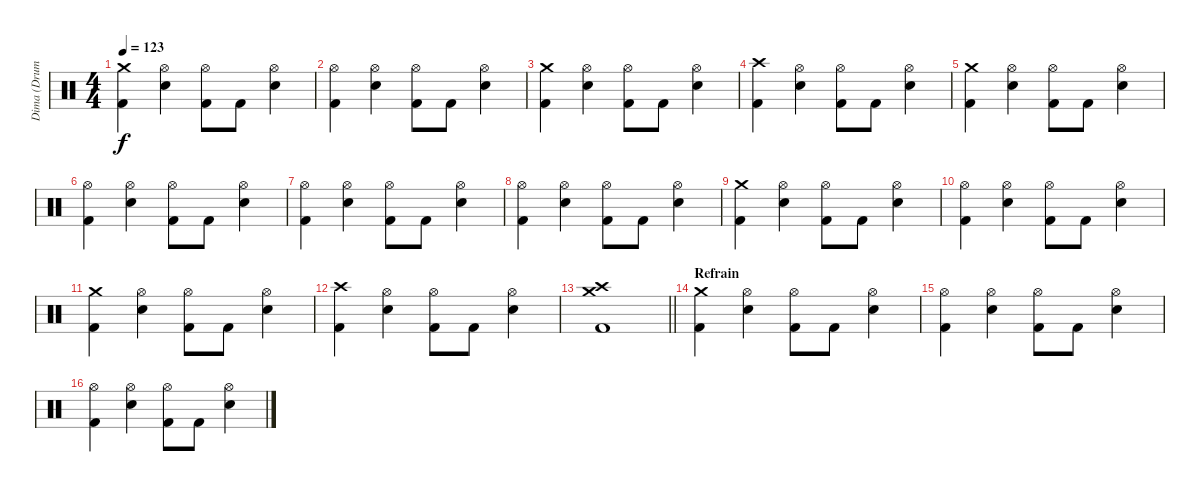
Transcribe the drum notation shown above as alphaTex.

\track ("Dima (Drums)" "Dima (Drum") {instrument percussion}
\staff {score}
\articulation defaults
\ts (4 4)
\tempo 123
\clef neutral
\ks c
("Crash medium (hit)" "Kick (hit) 2").4{dy f} ("Hi-Hat (open)" "Snare (hit) 2").4 ("Hi-Hat (open)" "Kick (hit) 2").8 "Kick (hit) 2".8 ("Hi-Hat (open)" "Snare (hit) 2").4 |
("Hi-Hat (open)" "Kick (hit) 2").4 ("Hi-Hat (open)" "Snare (hit) 2").4 ("Hi-Hat (open)" "Kick (hit) 2").8 "Kick (hit) 2".8 ("Hi-Hat (open)" "Snare (hit) 2").4 |
("Crash medium (hit)" "Kick (hit) 2").4 ("Hi-Hat (open)" "Snare (hit) 2").4 ("Hi-Hat (open)" "Kick (hit) 2").8 "Kick (hit) 2".8 ("Hi-Hat (open)" "Snare (hit) 2").4 |
("Crash high (hit)" "Kick (hit) 2").4 ("Hi-Hat (open)" "Snare (hit) 2").4 ("Hi-Hat (open)" "Kick (hit) 2").8 "Kick (hit) 2".8 ("Hi-Hat (open)" "Snare (hit) 2").4 |
("Crash medium (hit)" "Kick (hit) 2").4 ("Hi-Hat (open)" "Snare (hit) 2").4 ("Hi-Hat (open)" "Kick (hit) 2").8 "Kick (hit) 2".8 ("Hi-Hat (open)" "Snare (hit) 2").4 |
("Hi-Hat (open)" "Kick (hit) 2").4 ("Hi-Hat (open)" "Snare (hit) 2").4 ("Hi-Hat (open)" "Kick (hit) 2").8 "Kick (hit) 2".8 ("Hi-Hat (open)" "Snare (hit) 2").4 |
("Hi-Hat (open)" "Kick (hit) 2").4 ("Hi-Hat (open)" "Snare (hit) 2").4 ("Hi-Hat (open)" "Kick (hit) 2").8 "Kick (hit) 2".8 ("Hi-Hat (open)" "Snare (hit) 2").4 |
("Hi-Hat (open)" "Kick (hit) 2").4 ("Hi-Hat (open)" "Snare (hit) 2").4 ("Hi-Hat (open)" "Kick (hit) 2").8 "Kick (hit) 2".8 ("Hi-Hat (open)" "Snare (hit) 2").4 |
("Crash medium (hit)" "Kick (hit) 2").4 ("Hi-Hat (open)" "Snare (hit) 2").4 ("Hi-Hat (open)" "Kick (hit) 2").8 "Kick (hit) 2".8 ("Hi-Hat (open)" "Snare (hit) 2").4 |
("Hi-Hat (open)" "Kick (hit) 2").4 ("Hi-Hat (open)" "Snare (hit) 2").4 ("Hi-Hat (open)" "Kick (hit) 2").8 "Kick (hit) 2".8 ("Hi-Hat (open)" "Snare (hit) 2").4 |
("Crash medium (hit)" "Kick (hit) 2").4 ("Hi-Hat (open)" "Snare (hit) 2").4 ("Hi-Hat (open)" "Kick (hit) 2").8 "Kick (hit) 2".8 ("Hi-Hat (open)" "Snare (hit) 2").4 |
("Crash high (hit)" "Kick (hit) 2").4 ("Hi-Hat (open)" "Snare (hit) 2").4 ("Hi-Hat (open)" "Kick (hit) 2").8 "Kick (hit) 2".8 ("Hi-Hat (open)" "Snare (hit) 2").4 |
\barLineRight lightlight
("Crash high (hit)" "Crash medium (hit)" "Kick (hit) 2").1 |
\section ("" "Refrain")
("Crash medium (hit)" "Kick (hit) 2").4 ("Hi-Hat (open)" "Snare (hit) 2").4 ("Hi-Hat (open)" "Kick (hit) 2").8 "Kick (hit) 2".8 ("Hi-Hat (open)" "Snare (hit) 2").4 |
("Hi-Hat (open)" "Kick (hit) 2").4 ("Hi-Hat (open)" "Snare (hit) 2").4 ("Hi-Hat (open)" "Kick (hit) 2").8 "Kick (hit) 2".8 ("Hi-Hat (open)" "Snare (hit) 2").4 |
("Hi-Hat (open)" "Kick (hit) 2").4 ("Hi-Hat (open)" "Snare (hit) 2").4 ("Hi-Hat (open)" "Kick (hit) 2").8 "Kick (hit) 2".8 ("Hi-Hat (open)" "Snare (hit) 2").4
